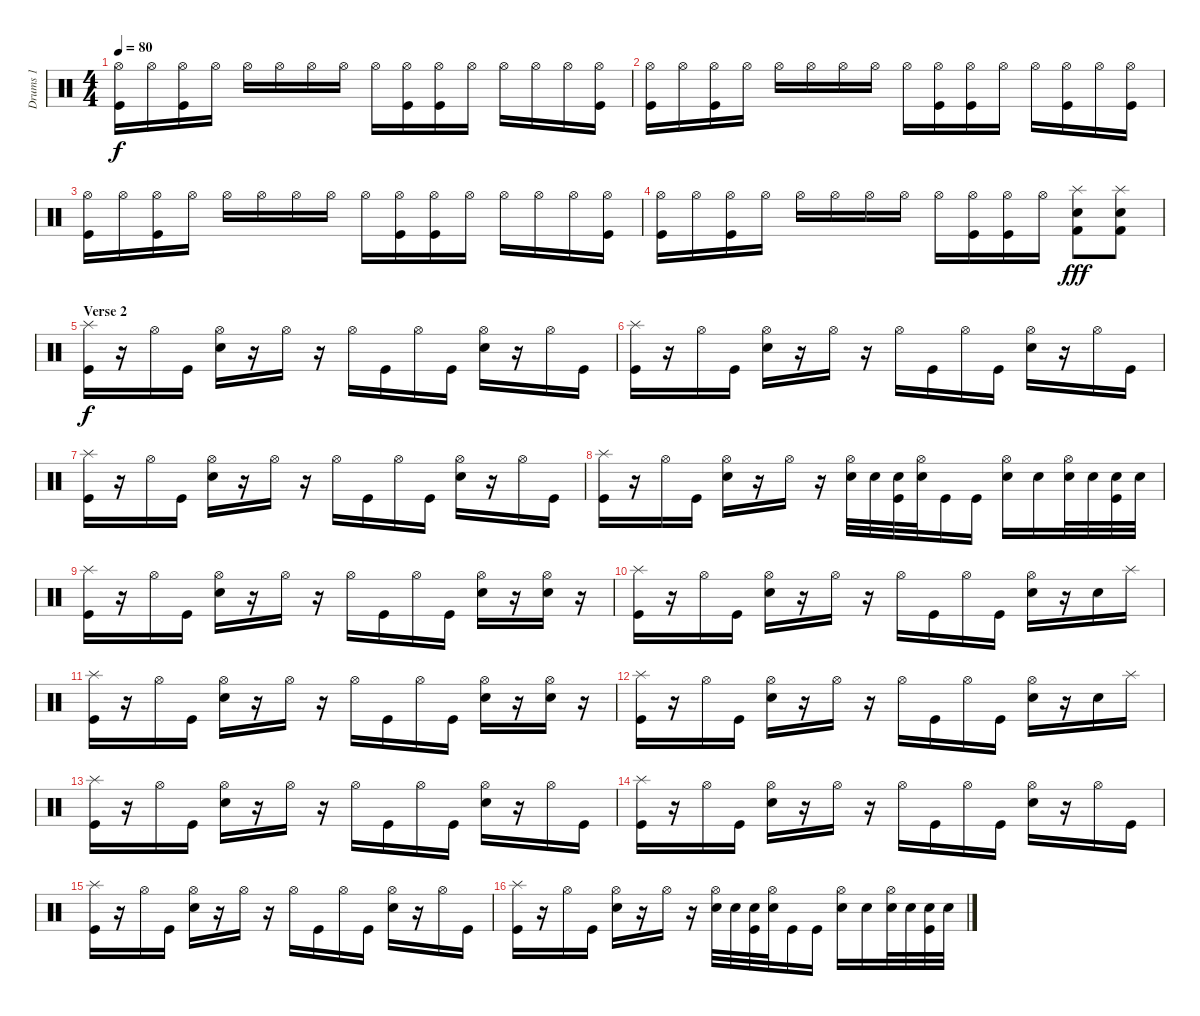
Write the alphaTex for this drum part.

\track ("Drums 1" "Drums 1") {instrument percussion}
\staff {score}
\articulation defaults
\ts (4 4)
\tempo 80
\clef neutral
\ks c
("Hi-Hat (open)" "Kick (hit)").16{dy f} "Hi-Hat (open)".16 ("Hi-Hat (open)" "Kick (hit)").16 "Hi-Hat (open)".16 "Hi-Hat (open)".16 "Hi-Hat (open)".16 "Hi-Hat (open)".16 "Hi-Hat (open)".16 "Hi-Hat (open)".16 ("Hi-Hat (open)" "Kick (hit)").16 ("Hi-Hat (open)" "Kick (hit)").16 "Hi-Hat (open)".16 "Hi-Hat (open)".16 "Hi-Hat (open)".16 "Hi-Hat (open)".16 ("Hi-Hat (open)" "Kick (hit)").16 |
("Hi-Hat (open)" "Kick (hit)").16 "Hi-Hat (open)".16 ("Hi-Hat (open)" "Kick (hit)").16 "Hi-Hat (open)".16 "Hi-Hat (open)".16 "Hi-Hat (open)".16 "Hi-Hat (open)".16 "Hi-Hat (open)".16 "Hi-Hat (open)".16 ("Hi-Hat (open)" "Kick (hit)").16 ("Hi-Hat (open)" "Kick (hit)").16 "Hi-Hat (open)".16 "Hi-Hat (open)".16 ("Hi-Hat (open)" "Kick (hit)").16 "Hi-Hat (open)".16 ("Hi-Hat (open)" "Kick (hit)").16 |
("Hi-Hat (open)" "Kick (hit)").16 "Hi-Hat (open)".16 ("Hi-Hat (open)" "Kick (hit)").16 "Hi-Hat (open)".16 "Hi-Hat (open)".16 "Hi-Hat (open)".16 "Hi-Hat (open)".16 "Hi-Hat (open)".16 "Hi-Hat (open)".16 ("Hi-Hat (open)" "Kick (hit)").16 ("Hi-Hat (open)" "Kick (hit)").16 "Hi-Hat (open)".16 "Hi-Hat (open)".16 "Hi-Hat (open)".16 "Hi-Hat (open)".16 ("Hi-Hat (open)" "Kick (hit)").16 |
("Hi-Hat (open)" "Kick (hit)").16 "Hi-Hat (open)".16 ("Hi-Hat (open)" "Kick (hit)").16 "Hi-Hat (open)".16 "Hi-Hat (open)".16 "Hi-Hat (open)".16 "Hi-Hat (open)".16 "Hi-Hat (open)".16 "Hi-Hat (open)".16 ("Hi-Hat (open)" "Kick (hit)").16 ("Hi-Hat (open)" "Kick (hit)").16 "Hi-Hat (open)".16 ("Splash (hit)" "Electric Snare (hit)" "Kick (hit) 2").8{dy fff} ("Splash (hit)" "Electric Snare (hit)" "Kick (hit) 2").8 |
\section ("" "Verse 2")
("Splash (hit)" "Kick (hit)").16{dy f volume 16} r.16 "Hi-Hat (open)".16 "Kick (hit)".16 ("Hi-Hat (open)" "Electric Snare (hit)").16 r.16 "Hi-Hat (open)".16 r.16 "Hi-Hat (open)".16 "Kick (hit)".16 "Hi-Hat (open)".16 "Kick (hit)".16 ("Hi-Hat (open)" "Electric Snare (hit)").16 r.16 "Hi-Hat (open)".16 "Kick (hit)".16 |
("Splash (hit)" "Kick (hit)").16 r.16 "Hi-Hat (open)".16 "Kick (hit)".16 ("Hi-Hat (open)" "Electric Snare (hit)").16 r.16 "Hi-Hat (open)".16 r.16 "Hi-Hat (open)".16 "Kick (hit)".16 "Hi-Hat (open)".16 "Kick (hit)".16 ("Hi-Hat (open)" "Electric Snare (hit)").16 r.16 "Hi-Hat (open)".16 "Kick (hit)".16 |
("Splash (hit)" "Kick (hit)").16 r.16 "Hi-Hat (open)".16 "Kick (hit)".16 ("Hi-Hat (open)" "Electric Snare (hit)").16 r.16 "Hi-Hat (open)".16 r.16 "Hi-Hat (open)".16 "Kick (hit)".16 "Hi-Hat (open)".16 "Kick (hit)".16 ("Hi-Hat (open)" "Electric Snare (hit)").16 r.16 "Hi-Hat (open)".16 "Kick (hit)".16 |
("Splash (hit)" "Kick (hit)").16 r.16 "Hi-Hat (open)".16 "Kick (hit)".16 ("Hi-Hat (open)" "Electric Snare (hit)").16 r.16 "Hi-Hat (open)".16 r.16 ("Hi-Hat (open)" "Electric Snare (hit)").32 "Electric Snare (hit)".32 ("Electric Snare (hit)" "Kick (hit)").32 ("Hi-Hat (open)" "Electric Snare (hit)").32 "Kick (hit)".16 "Kick (hit)".16 ("Hi-Hat (open)" "Electric Snare (hit)").16 "Electric Snare (hit)".16 ("Hi-Hat (open)" "Electric Snare (hit)").32 "Electric Snare (hit)".32 ("Electric Snare (hit)" "Kick (hit)").32 "Electric Snare (hit)".32 |
("Splash (hit)" "Kick (hit)").16 r.16 "Hi-Hat (open)".16 "Kick (hit)".16 ("Hi-Hat (open)" "Electric Snare (hit)").16 r.16 "Hi-Hat (open)".16 r.16 "Hi-Hat (open)".16 "Kick (hit)".16 "Hi-Hat (open)".16 "Kick (hit)".16 ("Hi-Hat (open)" "Electric Snare (hit)").16 r.16 ("Hi-Hat (open)" "Electric Snare (hit)").16 r.16 |
("Splash (hit)" "Kick (hit)").16 r.16 "Hi-Hat (open)".16 "Kick (hit)".16 ("Hi-Hat (open)" "Electric Snare (hit)").16 r.16 "Hi-Hat (open)".16 r.16 "Hi-Hat (open)".16 "Kick (hit)".16 "Hi-Hat (open)".16 "Kick (hit)".16 ("Hi-Hat (open)" "Electric Snare (hit)").16 r.16 "Electric Snare (hit)".16 "Splash (hit)".16 |
("Splash (hit)" "Kick (hit)").16 r.16 "Hi-Hat (open)".16 "Kick (hit)".16 ("Hi-Hat (open)" "Electric Snare (hit)").16 r.16 "Hi-Hat (open)".16 r.16 "Hi-Hat (open)".16 "Kick (hit)".16 "Hi-Hat (open)".16 "Kick (hit)".16 ("Hi-Hat (open)" "Electric Snare (hit)").16 r.16 ("Hi-Hat (open)" "Electric Snare (hit)").16 r.16 |
("Splash (hit)" "Kick (hit)").16 r.16 "Hi-Hat (open)".16 "Kick (hit)".16 ("Hi-Hat (open)" "Electric Snare (hit)").16 r.16 "Hi-Hat (open)".16 r.16 "Hi-Hat (open)".16 "Kick (hit)".16 "Hi-Hat (open)".16 "Kick (hit)".16 ("Hi-Hat (open)" "Electric Snare (hit)").16 r.16 "Electric Snare (hit)".16 "Splash (hit)".16 |
("Splash (hit)" "Kick (hit)").16 r.16 "Hi-Hat (open)".16 "Kick (hit)".16 ("Hi-Hat (open)" "Electric Snare (hit)").16 r.16 "Hi-Hat (open)".16 r.16 "Hi-Hat (open)".16 "Kick (hit)".16 "Hi-Hat (open)".16 "Kick (hit)".16 ("Hi-Hat (open)" "Electric Snare (hit)").16 r.16 "Hi-Hat (open)".16 "Kick (hit)".16 |
("Splash (hit)" "Kick (hit)").16 r.16 "Hi-Hat (open)".16 "Kick (hit)".16 ("Hi-Hat (open)" "Electric Snare (hit)").16 r.16 "Hi-Hat (open)".16 r.16 "Hi-Hat (open)".16 "Kick (hit)".16 "Hi-Hat (open)".16 "Kick (hit)".16 ("Hi-Hat (open)" "Electric Snare (hit)").16 r.16 "Hi-Hat (open)".16 "Kick (hit)".16 |
("Splash (hit)" "Kick (hit)").16 r.16 "Hi-Hat (open)".16 "Kick (hit)".16 ("Hi-Hat (open)" "Electric Snare (hit)").16 r.16 "Hi-Hat (open)".16 r.16 "Hi-Hat (open)".16 "Kick (hit)".16 "Hi-Hat (open)".16 "Kick (hit)".16 ("Hi-Hat (open)" "Electric Snare (hit)").16 r.16 "Hi-Hat (open)".16 "Kick (hit)".16 |
("Splash (hit)" "Kick (hit)").16 r.16 "Hi-Hat (open)".16 "Kick (hit)".16 ("Hi-Hat (open)" "Electric Snare (hit)").16 r.16 "Hi-Hat (open)".16 r.16 ("Hi-Hat (open)" "Electric Snare (hit)").32 "Electric Snare (hit)".32 ("Electric Snare (hit)" "Kick (hit)").32 ("Hi-Hat (open)" "Electric Snare (hit)").32 "Kick (hit)".16 "Kick (hit)".16 ("Hi-Hat (open)" "Electric Snare (hit)").16 "Electric Snare (hit)".16 ("Hi-Hat (open)" "Electric Snare (hit)").32 "Electric Snare (hit)".32 ("Electric Snare (hit)" "Kick (hit)").32 "Electric Snare (hit)".32
